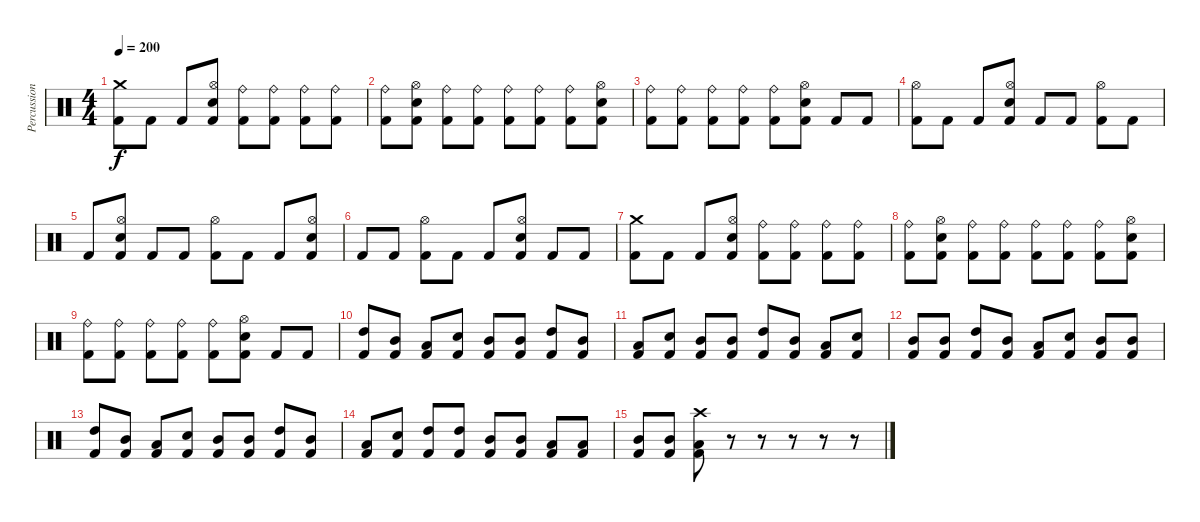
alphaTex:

\track ("Percussion" "Percussion") {instrument percussion}
\staff {score}
\articulation defaults
\ts (4 4)
\tempo 200
\clef neutral
\ks c
("Crash medium (hit)" "Kick (hit) 2").8{dy f} "Kick (hit) 2".8 "Kick (hit) 2".8 ("Hi-Hat (open)" "Electric Snare (hit)" "Kick (hit) 2").8 ("Ride (bell)" "Kick (hit) 2").8 ("Ride (bell)" "Kick (hit) 2").8 ("Ride (bell)" "Kick (hit) 2").8 ("Ride (bell)" "Kick (hit) 2").8 |
("Ride (bell)" "Kick (hit) 2").8 ("Hi-Hat (open)" "Electric Snare (hit)" "Kick (hit) 2").8 ("Ride (bell)" "Kick (hit) 2").8 ("Ride (bell)" "Kick (hit) 2").8 ("Ride (bell)" "Kick (hit) 2").8 ("Ride (bell)" "Kick (hit) 2").8 ("Ride (bell)" "Kick (hit) 2").8 ("Hi-Hat (open)" "Electric Snare (hit)" "Kick (hit) 2").8 |
("Ride (bell)" "Kick (hit) 2").8 ("Ride (bell)" "Kick (hit) 2").8 ("Ride (bell)" "Kick (hit) 2").8 ("Ride (bell)" "Kick (hit) 2").8 ("Ride (bell)" "Kick (hit) 2").8 ("Hi-Hat (open)" "Electric Snare (hit)" "Kick (hit) 2").8 "Kick (hit) 2".8 "Kick (hit) 2".8 |
("Hi-Hat (open)" "Kick (hit) 2").8 "Kick (hit) 2".8 "Kick (hit) 2".8 ("Hi-Hat (open)" "Electric Snare (hit)" "Kick (hit) 2").8 "Kick (hit) 2".8 "Kick (hit) 2".8 ("Hi-Hat (open)" "Kick (hit) 2").8 "Kick (hit) 2".8 |
"Kick (hit) 2".8 ("Hi-Hat (open)" "Electric Snare (hit)" "Kick (hit) 2").8 "Kick (hit) 2".8 "Kick (hit) 2".8 ("Hi-Hat (open)" "Kick (hit) 2").8 "Kick (hit) 2".8 "Kick (hit) 2".8 ("Hi-Hat (open)" "Electric Snare (hit)" "Kick (hit) 2").8 |
"Kick (hit) 2".8 "Kick (hit) 2".8 ("Hi-Hat (open)" "Kick (hit) 2").8 "Kick (hit) 2".8 "Kick (hit) 2".8 ("Hi-Hat (open)" "Electric Snare (hit)" "Kick (hit) 2").8 "Kick (hit) 2".8 "Kick (hit) 2".8 |
("Crash medium (hit)" "Kick (hit) 2").8 "Kick (hit) 2".8 "Kick (hit) 2".8 ("Hi-Hat (open)" "Electric Snare (hit)" "Kick (hit) 2").8 ("Ride (bell)" "Kick (hit) 2").8 ("Ride (bell)" "Kick (hit) 2").8 ("Ride (bell)" "Kick (hit) 2").8 ("Ride (bell)" "Kick (hit) 2").8 |
("Ride (bell)" "Kick (hit) 2").8 ("Hi-Hat (open)" "Electric Snare (hit)" "Kick (hit) 2").8 ("Ride (bell)" "Kick (hit) 2").8 ("Ride (bell)" "Kick (hit) 2").8 ("Ride (bell)" "Kick (hit) 2").8 ("Ride (bell)" "Kick (hit) 2").8 ("Ride (bell)" "Kick (hit) 2").8 ("Hi-Hat (open)" "Electric Snare (hit)" "Kick (hit) 2").8 |
("Ride (bell)" "Kick (hit) 2").8 ("Ride (bell)" "Kick (hit) 2").8 ("Ride (bell)" "Kick (hit) 2").8 ("Ride (bell)" "Kick (hit) 2").8 ("Ride (bell)" "Kick (hit) 2").8 ("Hi-Hat (open)" "Electric Snare (hit)" "Kick (hit) 2").8 "Kick (hit) 2".8 "Kick (hit) 2".8 |
("High Tom (hit)" "Kick (hit) 2").8 ("Mid Tom (hit)" "Kick (hit) 2").8 ("Low Tom (hit)" "Kick (hit) 2").8 ("Electric Snare (hit)" "Kick (hit) 2").8 ("Mid Tom (hit)" "Kick (hit) 2").8 ("Mid Tom (hit)" "Kick (hit) 2").8 ("High Tom (hit)" "Kick (hit) 2").8 ("Mid Tom (hit)" "Kick (hit) 2").8 |
("Low Tom (hit)" "Kick (hit) 2").8 ("Electric Snare (hit)" "Kick (hit) 2").8 ("Mid Tom (hit)" "Kick (hit) 2").8 ("Mid Tom (hit)" "Kick (hit) 2").8 ("High Tom (hit)" "Kick (hit) 2").8 ("Mid Tom (hit)" "Kick (hit) 2").8 ("Low Tom (hit)" "Kick (hit) 2").8 ("Electric Snare (hit)" "Kick (hit) 2").8 |
("Mid Tom (hit)" "Kick (hit) 2").8 ("Mid Tom (hit)" "Kick (hit) 2").8 ("High Tom (hit)" "Kick (hit) 2").8 ("Mid Tom (hit)" "Kick (hit) 2").8 ("Low Tom (hit)" "Kick (hit) 2").8 ("Electric Snare (hit)" "Kick (hit) 2").8 ("Mid Tom (hit)" "Kick (hit) 2").8 ("Mid Tom (hit)" "Kick (hit) 2").8 |
("High Tom (hit)" "Kick (hit) 2").8 ("Mid Tom (hit)" "Kick (hit) 2").8 ("Low Tom (hit)" "Kick (hit) 2").8 ("Electric Snare (hit)" "Kick (hit) 2").8 ("Mid Tom (hit)" "Kick (hit) 2").8 ("Mid Tom (hit)" "Kick (hit) 2").8 ("High Tom (hit)" "Kick (hit) 2").8 ("Mid Tom (hit)" "Kick (hit) 2").8 |
("Low Tom (hit)" "Kick (hit) 2").8 ("Electric Snare (hit)" "Kick (hit) 2").8 ("High Tom (hit)" "Kick (hit) 2").8 ("High Tom (hit)" "Kick (hit) 2").8 ("Mid Tom (hit)" "Kick (hit) 2").8 ("Mid Tom (hit)" "Kick (hit) 2").8 ("Low Tom (hit)" "Kick (hit) 2").8 ("Low Tom (hit)" "Kick (hit) 2").8 |
("Mid Tom (hit)" "Kick (hit) 2").8 ("Mid Tom (hit)" "Kick (hit) 2").8 ("Crash high (hit)" "Low Tom (hit)" "Kick (hit) 2").8 r.8 r.8 r.8 r.8 r.8
